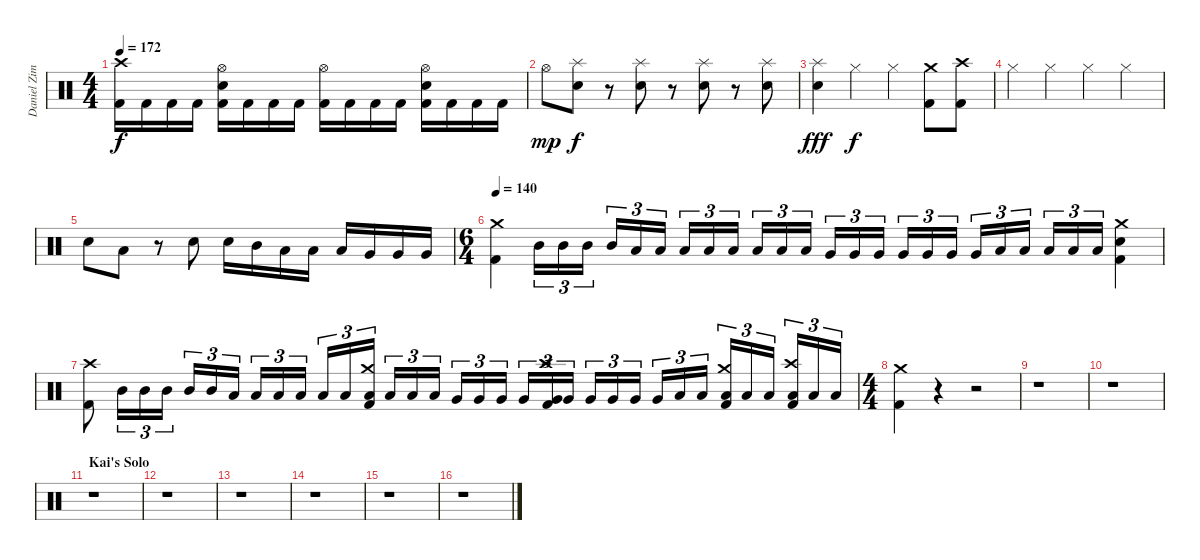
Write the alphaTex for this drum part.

\track ("Daniel Zimmermann - Drums" "Daniel Zim") {instrument percussion}
\staff {score}
\articulation defaults
\ts (4 4)
\tempo 172
\clef neutral
\ks c
("Kick (hit) 2" "Crash high (hit)").16{dy f} "Kick (hit) 2".16 "Kick (hit) 2".16 "Kick (hit) 2".16 ("Kick (hit) 2" "Electric Snare (hit)" "Hi-Hat (open)").16 "Kick (hit) 2".16 "Kick (hit) 2".16 "Kick (hit) 2".16 ("Kick (hit) 2" "Hi-Hat (open)").16 "Kick (hit) 2".16 "Kick (hit) 2".16 "Kick (hit) 2".16 ("Kick (hit) 2" "Electric Snare (hit)" "Hi-Hat (open)").16 "Kick (hit) 2".16 "Kick (hit) 2".16 "Kick (hit) 2".16 |
"Hi-Hat (open)".8{dy mp} ("Electric Snare (hit)" "Splash (hit)").8{dy f} r.8 ("Electric Snare (hit)" "Splash (hit)").8 r.8 ("Electric Snare (hit)" "Splash (hit)").8 r.8 ("Electric Snare (hit)" "Splash (hit)").8 |
("Electric Snare (hit)" "Splash (hit)").4{dy fff} "Hi-Hat (closed)".4{dy f} "Hi-Hat (closed)".4 ("Kick (hit) 2" "Crash medium (hit)").8 ("Kick (hit) 2" "Crash high (hit)").8 |
"Hi-Hat (closed)".4 "Hi-Hat (closed)".4 "Hi-Hat (closed)".4 "Hi-Hat (closed)".4 |
"Electric Snare (hit)".8 "Low Tom (hit)".8 r.8 "Electric Snare (hit)".8 "Electric Snare (hit)".16 "Mid Tom (hit)".16 "Low Tom (hit)".16 "Low Tom (hit)".16 "Low Tom (hit)".16 "Very Low Tom (hit)".16 "Very Low Tom (hit)".16 "Very Low Tom (hit)".16 |
\ts (6 4)
\tempo 140
("Kick (hit) 2" "Crash medium (hit)").4 "Mid Tom (hit)".16{tu (3 2)} "Mid Tom (hit)".16{tu (3 2)} "Mid Tom (hit)".16{tu (3 2) beam splitsecondary} "Mid Tom (hit)".16{tu (3 2)} "Low Tom (hit)".16{tu (3 2)} "Low Tom (hit)".16{tu (3 2) beam splitsecondary} "Low Tom (hit)".16{tu (3 2)} "Low Tom (hit)".16{tu (3 2)} "Low Tom (hit)".16{tu (3 2) beam splitsecondary} "Low Tom (hit)".16{tu (3 2)} "Low Tom (hit)".16{tu (3 2)} "Low Tom (hit)".16{tu (3 2)} "Very Low Tom (hit)".16{tu (3 2)} "Very Low Tom (hit)".16{tu (3 2)} "Very Low Tom (hit)".16{tu (3 2) beam splitsecondary} "Very Low Tom (hit)".16{tu (3 2)} "Very Low Tom (hit)".16{tu (3 2)} "Very Low Tom (hit)".16{tu (3 2) beam splitsecondary} "Very Low Tom (hit)".16{tu (3 2)} "Low Floor Tom (hit)".16{tu (3 2)} "Low Floor Tom (hit)".16{tu (3 2) beam splitsecondary} "Low Floor Tom (hit)".16{tu (3 2)} "Low Floor Tom (hit)".16{tu (3 2)} "Low Floor Tom (hit)".16{tu (3 2)} ("Kick (hit) 2" "Electric Snare (hit)" "Crash medium (hit)").4 |
("Kick (hit) 2" "Crash high (hit)").8 "Mid Tom (hit)".16{tu (3 2)} "Mid Tom (hit)".16{tu (3 2)} "Mid Tom (hit)".16{tu (3 2) beam splitsecondary} "Mid Tom (hit)".16{tu (3 2)} "Mid Tom (hit)".16{tu (3 2)} "Low Tom (hit)".16{tu (3 2) beam splitsecondary} "Low Tom (hit)".16{tu (3 2)} "Low Tom (hit)".16{tu (3 2)} "Low Tom (hit)".16{tu (3 2) beam splitsecondary} "Low Tom (hit)".16{tu (3 2)} "Low Tom (hit)".16{tu (3 2)} ("Kick (hit) 2" "Low Tom (hit)" "Crash medium (hit)").16{tu (3 2) beam splitsecondary} "Low Tom (hit)".16{tu (3 2)} "Low Tom (hit)".16{tu (3 2)} "Low Tom (hit)".16{tu (3 2)} "Very Low Tom (hit)".16{tu (3 2)} "Very Low Tom (hit)".16{tu (3 2)} "Very Low Tom (hit)".16{tu (3 2) beam splitsecondary} "Very Low Tom (hit)".16{tu (3 2)} ("Kick (hit) 2" "Very Low Tom (hit)" "Crash high (hit)").16{tu (3 2)} "Very Low Tom (hit)".16{tu (3 2) beam splitsecondary} "Very Low Tom (hit)".16{tu (3 2)} "Very Low Tom (hit)".16{tu (3 2)} "Very Low Tom (hit)".16{tu (3 2) beam splitsecondary} "Very Low Tom (hit)".16{tu (3 2)} "Low Floor Tom (hit)".16{tu (3 2)} "Low Floor Tom (hit)".16{tu (3 2) beam splitsecondary} ("Kick (hit) 2" "Low Floor Tom (hit)" "Crash medium (hit)").16{tu (3 2)} "Low Floor Tom (hit)".16{tu (3 2)} "Low Floor Tom (hit)".16{tu (3 2) beam splitsecondary} ("Kick (hit) 2" "Low Floor Tom (hit)" "Crash high (hit)").16{tu (3 2)} "Low Floor Tom (hit)".16{tu (3 2)} "Low Floor Tom (hit)".16{tu (3 2)} |
\ts (4 4)
("Kick (hit) 2" "Crash medium (hit)").4 r.4 r.2 |
r.1 |
r.1 |
\section ("" "Kai's Solo")
r.1 |
r.1 |
r.1 |
r.1 |
r.1 |
r.1
